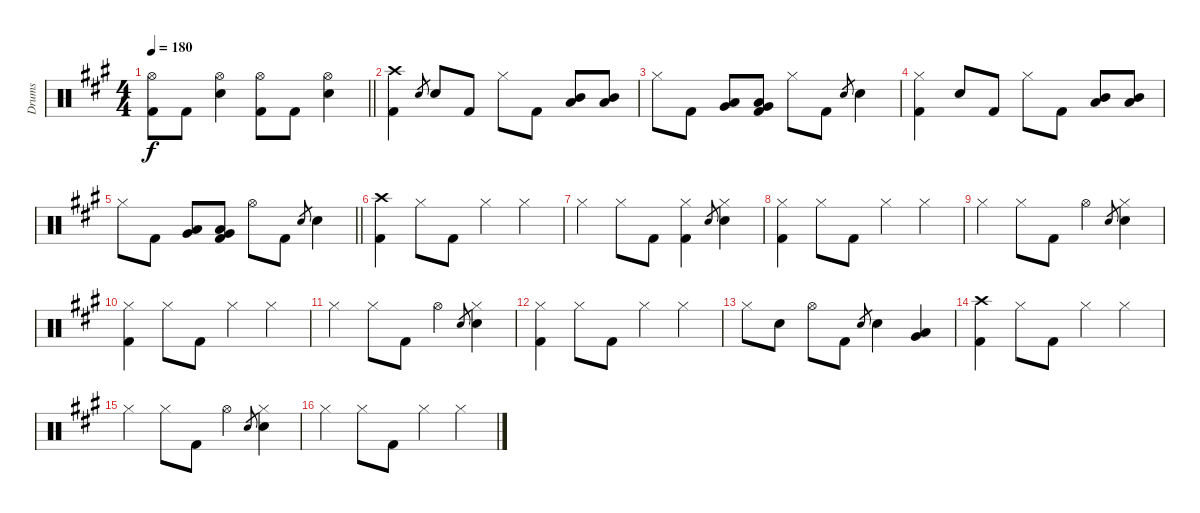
\track ("Drums" "Drums") {instrument percussion}
\staff {score}
\articulation defaults
\ts (4 4)
\tempo 180
\clef neutral
\barLineRight lightlight
\ks a
("Hi-Hat (open)" "Kick (hit) 2").8{dy f} "Kick (hit) 2".8 ("Hi-Hat (open)" "Electric Snare (hit)").4 ("Hi-Hat (open)" "Kick (hit) 2").8 "Kick (hit) 2".8 ("Hi-Hat (open)" "Electric Snare (hit)").4 |
("Crash high (hit)" "Kick (hit) 2").4 "Electric Snare (hit)".8{gr} "Electric Snare (hit)".8 "Kick (hit) 2".8 "Hi-Hat (closed)".8 "Kick (hit) 2".8 ("Mid Tom (hit)" "Low Tom (hit)").8 ("Mid Tom (hit)" "Low Tom (hit)").8 |
"Hi-Hat (closed)".8 "Kick (hit) 2".8 ("Low Tom (hit)" "Very Low Tom (hit)").8 ("Low Tom (hit)" "Very Low Tom (hit)" "Kick (hit) 2").8 "Hi-Hat (closed)".8 "Kick (hit) 2".8 "Electric Snare (hit)".8{gr} "Electric Snare (hit)".4 |
("Hi-Hat (closed)" "Kick (hit) 2").4 "Electric Snare (hit)".8 "Kick (hit) 2".8 "Hi-Hat (closed)".8 "Kick (hit) 2".8 ("Mid Tom (hit)" "Low Tom (hit)").8 ("Mid Tom (hit)" "Low Tom (hit)").8 |
\barLineRight lightlight "Hi-Hat (closed)".8 "Kick (hit) 2".8
("Low Tom (hit)" "Very Low Tom (hit)").8 ("Low Tom (hit)" "Very Low Tom (hit)" "Kick (hit) 2").8 "Hi-Hat (open)".8 "Kick (hit) 2".8 "Electric Snare (hit)".8{gr} "Electric Snare (hit)".4 |
("Crash high (hit)" "Kick (hit) 2").4 "Hi-Hat (closed)".8 "Kick (hit) 2".8 "Hi-Hat (closed)".4 "Hi-Hat (closed)".4 |
"Hi-Hat (closed)".4 "Hi-Hat (closed)".8 "Kick (hit) 2".8 ("Hi-Hat (closed)" "Kick (hit) 2").4 "Electric Snare (hit)".8{gr} ("Hi-Hat (closed)" "Electric Snare (hit)").4 |
("Hi-Hat (closed)" "Kick (hit) 2").4 "Hi-Hat (closed)".8 "Kick (hit) 2".8 "Hi-Hat (closed)".4 "Hi-Hat (closed)".4 |
"Hi-Hat (closed)".4 "Hi-Hat (closed)".8 "Kick (hit) 2".8 "Hi-Hat (open)".4 "Electric Snare (hit)".8{gr} ("Hi-Hat (closed)" "Electric Snare (hit)").4 |
("Hi-Hat (closed)" "Kick (hit) 2").4 "Hi-Hat (closed)".8 "Kick (hit) 2".8 "Hi-Hat (closed)".4 "Hi-Hat (closed)".4 |
"Hi-Hat (closed)".4 "Hi-Hat (closed)".8 "Kick (hit) 2".8 "Hi-Hat (open)".4 "Electric Snare (hit)".8{gr} ("Hi-Hat (closed)" "Electric Snare (hit)").4 |
("Hi-Hat (closed)" "Kick (hit) 2").4 "Hi-Hat (closed)".8 "Kick (hit) 2".8 "Hi-Hat (closed)".4 "Hi-Hat (closed)".4 |
"Hi-Hat (closed)".8 "Electric Snare (hit)".8 "Hi-Hat (open)".8 "Kick (hit) 2".8 "Electric Snare (hit)".8{gr} "Electric Snare (hit)".4 ("Low Tom (hit)" "Very Low Tom (hit)").4 |
("Crash high (hit)" "Kick (hit) 2").4 "Hi-Hat (closed)".8 "Kick (hit) 2".8 "Hi-Hat (closed)".4 "Hi-Hat (closed)".4 |
"Hi-Hat (closed)".4 "Hi-Hat (closed)".8 "Kick (hit) 2".8 "Hi-Hat (open)".4 "Electric Snare (hit)".8{gr} ("Hi-Hat (closed)" "Electric Snare (hit)").4 |
"Hi-Hat (closed)".4 "Hi-Hat (closed)".8 "Kick (hit) 2".8 "Hi-Hat (closed)".4 "Hi-Hat (closed)".4
